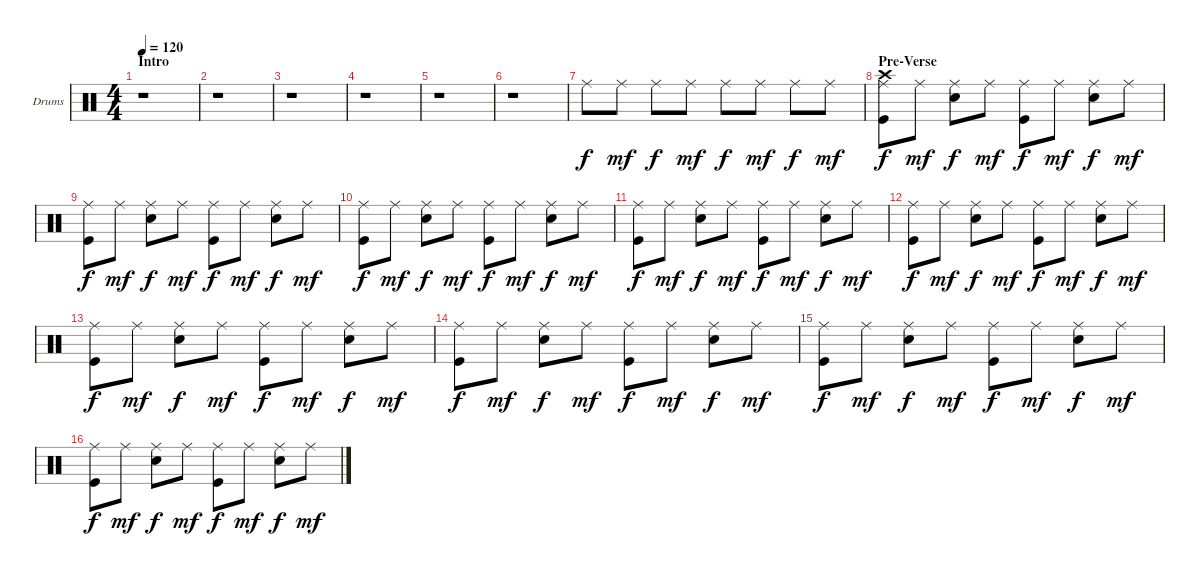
\bracketExtendMode groupsimilarinstruments
\firstSystemTrackNameOrientation horizontal
\otherSystemsTrackNameOrientation horizontal
\chordDiagramsInScore
\track ("Drumkit" "Drums") {instrument percussion}
\staff {score}
\articulation defaults
\ts (4 4)
\section ("" "Intro")
\tempo 120
\clef neutral
\ks c
r.1{dy f} |
r.1 |
r.1 |
r.1 |
r.1 |
r.1 |
"Ride (middle)".8 "Ride (middle)".8{dy mf} "Ride (middle)".8{dy f} "Ride (middle)".8{dy mf} "Ride (middle)".8{dy f} "Ride (middle)".8{dy mf} "Ride (middle)".8{dy f} "Ride (middle)".8{dy mf} |
\section ("" "Pre-Verse")
("Ride (middle)" "Crash high (hit)" "Kick (hit)").8{dy f} "Ride (middle)".8{dy mf} ("Ride (middle)" "Snare (hit) 2").8{dy f} "Ride (middle)".8{dy mf} ("Ride (middle)" "Kick (hit)").8{dy f} "Ride (middle)".8{dy mf} ("Ride (middle)" "Snare (hit) 2").8{dy f} "Ride (middle)".8{dy mf} |
("Ride (middle)" "Kick (hit)").8{dy f} "Ride (middle)".8{dy mf} ("Ride (middle)" "Snare (hit) 2").8{dy f} "Ride (middle)".8{dy mf} ("Ride (middle)" "Kick (hit)").8{dy f} "Ride (middle)".8{dy mf} ("Ride (middle)" "Snare (hit) 2").8{dy f} "Ride (middle)".8{dy mf} |
("Ride (middle)" "Kick (hit)").8{dy f} "Ride (middle)".8{dy mf} ("Ride (middle)" "Snare (hit) 2").8{dy f} "Ride (middle)".8{dy mf} ("Ride (middle)" "Kick (hit)").8{dy f} "Ride (middle)".8{dy mf} ("Ride (middle)" "Snare (hit) 2").8{dy f} "Ride (middle)".8{dy mf} |
("Ride (middle)" "Kick (hit)").8{dy f} "Ride (middle)".8{dy mf} ("Ride (middle)" "Snare (hit) 2").8{dy f} "Ride (middle)".8{dy mf} ("Ride (middle)" "Kick (hit)").8{dy f} "Ride (middle)".8{dy mf} ("Ride (middle)" "Snare (hit) 2").8{dy f} "Ride (middle)".8{dy mf} |
("Ride (middle)" "Kick (hit)").8{dy f} "Ride (middle)".8{dy mf} ("Ride (middle)" "Snare (hit) 2").8{dy f} "Ride (middle)".8{dy mf} ("Ride (middle)" "Kick (hit)").8{dy f} "Ride (middle)".8{dy mf} ("Ride (middle)" "Snare (hit) 2").8{dy f} "Ride (middle)".8{dy mf} |
("Ride (middle)" "Kick (hit)").8{dy f} "Ride (middle)".8{dy mf} ("Ride (middle)" "Snare (hit) 2").8{dy f} "Ride (middle)".8{dy mf} ("Ride (middle)" "Kick (hit)").8{dy f} "Ride (middle)".8{dy mf} ("Ride (middle)" "Snare (hit) 2").8{dy f} "Ride (middle)".8{dy mf} |
("Ride (middle)" "Kick (hit)").8{dy f} "Ride (middle)".8{dy mf} ("Ride (middle)" "Snare (hit) 2").8{dy f} "Ride (middle)".8{dy mf} ("Ride (middle)" "Kick (hit)").8{dy f} "Ride (middle)".8{dy mf} ("Ride (middle)" "Snare (hit) 2").8{dy f} "Ride (middle)".8{dy mf} |
("Ride (middle)" "Kick (hit)").8{dy f} "Ride (middle)".8{dy mf} ("Ride (middle)" "Snare (hit) 2").8{dy f} "Ride (middle)".8{dy mf} ("Ride (middle)" "Kick (hit)").8{dy f} "Ride (middle)".8{dy mf} ("Ride (middle)" "Snare (hit) 2").8{dy f} "Ride (middle)".8{dy mf} |
("Ride (middle)" "Kick (hit)").8{dy f} "Ride (middle)".8{dy mf} ("Ride (middle)" "Snare (hit) 2").8{dy f} "Ride (middle)".8{dy mf} ("Ride (middle)" "Kick (hit)").8{dy f} "Ride (middle)".8{dy mf} ("Ride (middle)" "Snare (hit) 2").8{dy f} "Ride (middle)".8{dy mf}
